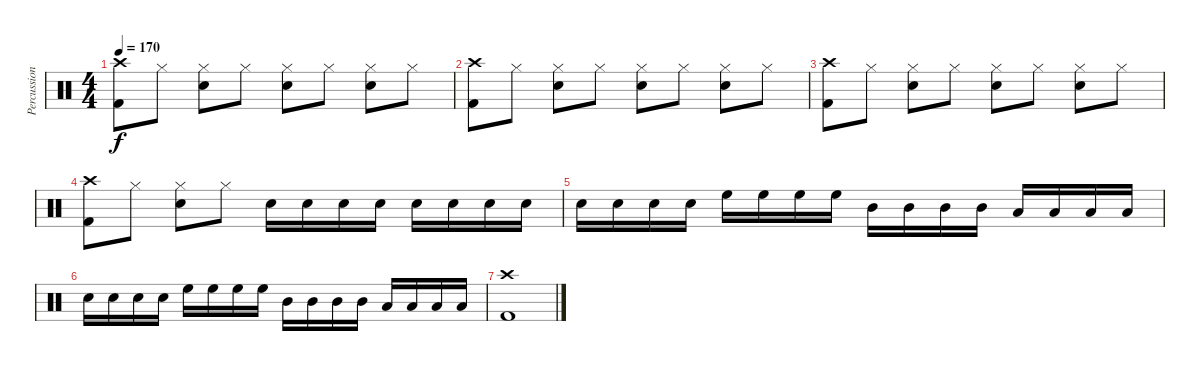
\track ("Percussions" "Percussion") {instrument percussion}
\staff {score}
\articulation defaults
\ts (4 4)
\tempo 170
\clef neutral
\ks c
("Crash high (hit)" "Kick (hit) 2").8{dy f} "Hi-Hat (closed)".8 ("Snare (hit) 2" "Hi-Hat (closed)").8 "Hi-Hat (closed)".8 ("Snare (hit) 2" "Hi-Hat (closed)").8 "Hi-Hat (closed)".8 ("Snare (hit) 2" "Hi-Hat (closed)").8 "Hi-Hat (closed)".8 |
("Crash high (hit)" "Kick (hit) 2").8 "Hi-Hat (closed)".8 ("Snare (hit) 2" "Hi-Hat (closed)").8 "Hi-Hat (closed)".8 ("Snare (hit) 2" "Hi-Hat (closed)").8 "Hi-Hat (closed)".8 ("Snare (hit) 2" "Hi-Hat (closed)").8 "Hi-Hat (closed)".8 |
("Crash high (hit)" "Kick (hit) 2").8 "Hi-Hat (closed)".8 ("Snare (hit) 2" "Hi-Hat (closed)").8 "Hi-Hat (closed)".8 ("Snare (hit) 2" "Hi-Hat (closed)").8 "Hi-Hat (closed)".8 ("Snare (hit) 2" "Hi-Hat (closed)").8 "Hi-Hat (closed)".8 |
("Crash high (hit)" "Kick (hit) 2").8 "Hi-Hat (closed)".8 ("Snare (hit) 2" "Hi-Hat (closed)").8 "Hi-Hat (closed)".8 "Snare (hit) 2".16 "Snare (hit) 2".16 "Snare (hit) 2".16 "Snare (hit) 2".16 "Snare (hit) 2".16 "Snare (hit) 2".16 "Snare (hit) 2".16 "Snare (hit) 2".16 |
"Snare (hit) 2".16 "Snare (hit) 2".16 "Snare (hit) 2".16 "Snare (hit) 2".16 "High Floor Tom (hit)".16 "High Floor Tom (hit)".16 "High Floor Tom (hit)".16 "High Floor Tom (hit)".16 "Mid Tom (hit)".16 "Mid Tom (hit)".16 "Mid Tom (hit)".16 "Mid Tom (hit)".16 "Low Floor Tom (hit)".16 "Low Floor Tom (hit)".16 "Low Floor Tom (hit)".16 "Low Floor Tom (hit)".16 |
"Snare (hit) 2".16 "Snare (hit) 2".16 "Snare (hit) 2".16 "Snare (hit) 2".16 "High Floor Tom (hit)".16 "High Floor Tom (hit)".16 "High Floor Tom (hit)".16 "High Floor Tom (hit)".16 "Mid Tom (hit)".16 "Mid Tom (hit)".16 "Mid Tom (hit)".16 "Mid Tom (hit)".16 "Low Floor Tom (hit)".16 "Low Floor Tom (hit)".16 "Low Floor Tom (hit)".16 "Low Floor Tom (hit)".16 |
("Crash high (hit)" "Kick (hit) 2").1
